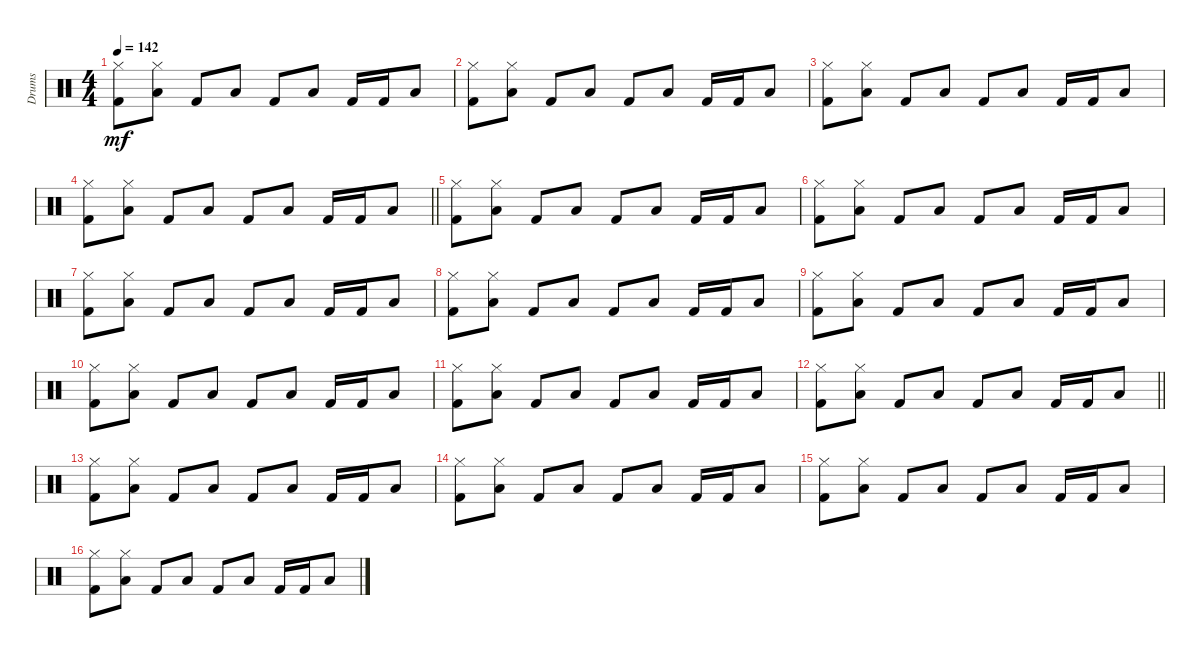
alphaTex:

\track ("Drums" "Drums") {instrument percussion}
\staff {score}
\articulation defaults
\ts (4 4)
\tempo 142
\clef neutral
\ks c
("Hi-Hat (closed)" "Kick (hit) 2").8{dy mf} ("Hi-Hat (closed)" "Low Tom (hit)").8 "Kick (hit) 2".8 "Low Tom (hit)".8 "Kick (hit) 2".8 "Low Tom (hit)".8 "Kick (hit) 2".16 "Kick (hit) 2".16 "Low Tom (hit)".8 |
("Hi-Hat (closed)" "Kick (hit) 2").8 ("Hi-Hat (closed)" "Low Tom (hit)").8 "Kick (hit) 2".8 "Low Tom (hit)".8 "Kick (hit) 2".8 "Low Tom (hit)".8 "Kick (hit) 2".16 "Kick (hit) 2".16 "Low Tom (hit)".8 |
("Hi-Hat (closed)" "Kick (hit) 2").8 ("Hi-Hat (closed)" "Low Tom (hit)").8 "Kick (hit) 2".8 "Low Tom (hit)".8 "Kick (hit) 2".8 "Low Tom (hit)".8 "Kick (hit) 2".16 "Kick (hit) 2".16 "Low Tom (hit)".8 |
\barLineRight lightlight
("Hi-Hat (closed)" "Kick (hit) 2").8 ("Hi-Hat (closed)" "Low Tom (hit)").8 "Kick (hit) 2".8 "Low Tom (hit)".8 "Kick (hit) 2".8 "Low Tom (hit)".8 "Kick (hit) 2".16 "Kick (hit) 2".16 "Low Tom (hit)".8 |
\section ("" "")
("Hi-Hat (closed)" "Kick (hit) 2").8 ("Hi-Hat (closed)" "Low Tom (hit)").8 "Kick (hit) 2".8 "Low Tom (hit)".8 "Kick (hit) 2".8 "Low Tom (hit)".8 "Kick (hit) 2".16 "Kick (hit) 2".16 "Low Tom (hit)".8 |
("Hi-Hat (closed)" "Kick (hit) 2").8 ("Hi-Hat (closed)" "Low Tom (hit)").8 "Kick (hit) 2".8 "Low Tom (hit)".8 "Kick (hit) 2".8 "Low Tom (hit)".8 "Kick (hit) 2".16 "Kick (hit) 2".16 "Low Tom (hit)".8 |
("Hi-Hat (closed)" "Kick (hit) 2").8 ("Hi-Hat (closed)" "Low Tom (hit)").8 "Kick (hit) 2".8 "Low Tom (hit)".8 "Kick (hit) 2".8 "Low Tom (hit)".8 "Kick (hit) 2".16 "Kick (hit) 2".16 "Low Tom (hit)".8 |
("Hi-Hat (closed)" "Kick (hit) 2").8 ("Hi-Hat (closed)" "Low Tom (hit)").8 "Kick (hit) 2".8 "Low Tom (hit)".8 "Kick (hit) 2".8 "Low Tom (hit)".8 "Kick (hit) 2".16 "Kick (hit) 2".16 "Low Tom (hit)".8 |
("Hi-Hat (closed)" "Kick (hit) 2").8 ("Hi-Hat (closed)" "Low Tom (hit)").8 "Kick (hit) 2".8 "Low Tom (hit)".8 "Kick (hit) 2".8 "Low Tom (hit)".8 "Kick (hit) 2".16 "Kick (hit) 2".16 "Low Tom (hit)".8 |
("Hi-Hat (closed)" "Kick (hit) 2").8 ("Hi-Hat (closed)" "Low Tom (hit)").8 "Kick (hit) 2".8 "Low Tom (hit)".8 "Kick (hit) 2".8 "Low Tom (hit)".8 "Kick (hit) 2".16 "Kick (hit) 2".16 "Low Tom (hit)".8 |
("Hi-Hat (closed)" "Kick (hit) 2").8 ("Hi-Hat (closed)" "Low Tom (hit)").8 "Kick (hit) 2".8 "Low Tom (hit)".8 "Kick (hit) 2".8 "Low Tom (hit)".8 "Kick (hit) 2".16 "Kick (hit) 2".16 "Low Tom (hit)".8 |
\barLineRight lightlight
("Hi-Hat (closed)" "Kick (hit) 2").8 ("Hi-Hat (closed)" "Low Tom (hit)").8 "Kick (hit) 2".8 "Low Tom (hit)".8 "Kick (hit) 2".8 "Low Tom (hit)".8 "Kick (hit) 2".16 "Kick (hit) 2".16 "Low Tom (hit)".8 |
\section ("" "")
("Hi-Hat (closed)" "Kick (hit) 2").8 ("Hi-Hat (closed)" "Low Tom (hit)").8 "Kick (hit) 2".8 "Low Tom (hit)".8 "Kick (hit) 2".8 "Low Tom (hit)".8 "Kick (hit) 2".16 "Kick (hit) 2".16 "Low Tom (hit)".8 |
("Hi-Hat (closed)" "Kick (hit) 2").8 ("Hi-Hat (closed)" "Low Tom (hit)").8 "Kick (hit) 2".8 "Low Tom (hit)".8 "Kick (hit) 2".8 "Low Tom (hit)".8 "Kick (hit) 2".16 "Kick (hit) 2".16 "Low Tom (hit)".8 |
("Hi-Hat (closed)" "Kick (hit) 2").8 ("Hi-Hat (closed)" "Low Tom (hit)").8 "Kick (hit) 2".8 "Low Tom (hit)".8 "Kick (hit) 2".8 "Low Tom (hit)".8 "Kick (hit) 2".16 "Kick (hit) 2".16 "Low Tom (hit)".8 |
("Hi-Hat (closed)" "Kick (hit) 2").8 ("Hi-Hat (closed)" "Low Tom (hit)").8 "Kick (hit) 2".8 "Low Tom (hit)".8 "Kick (hit) 2".8 "Low Tom (hit)".8 "Kick (hit) 2".16 "Kick (hit) 2".16 "Low Tom (hit)".8
